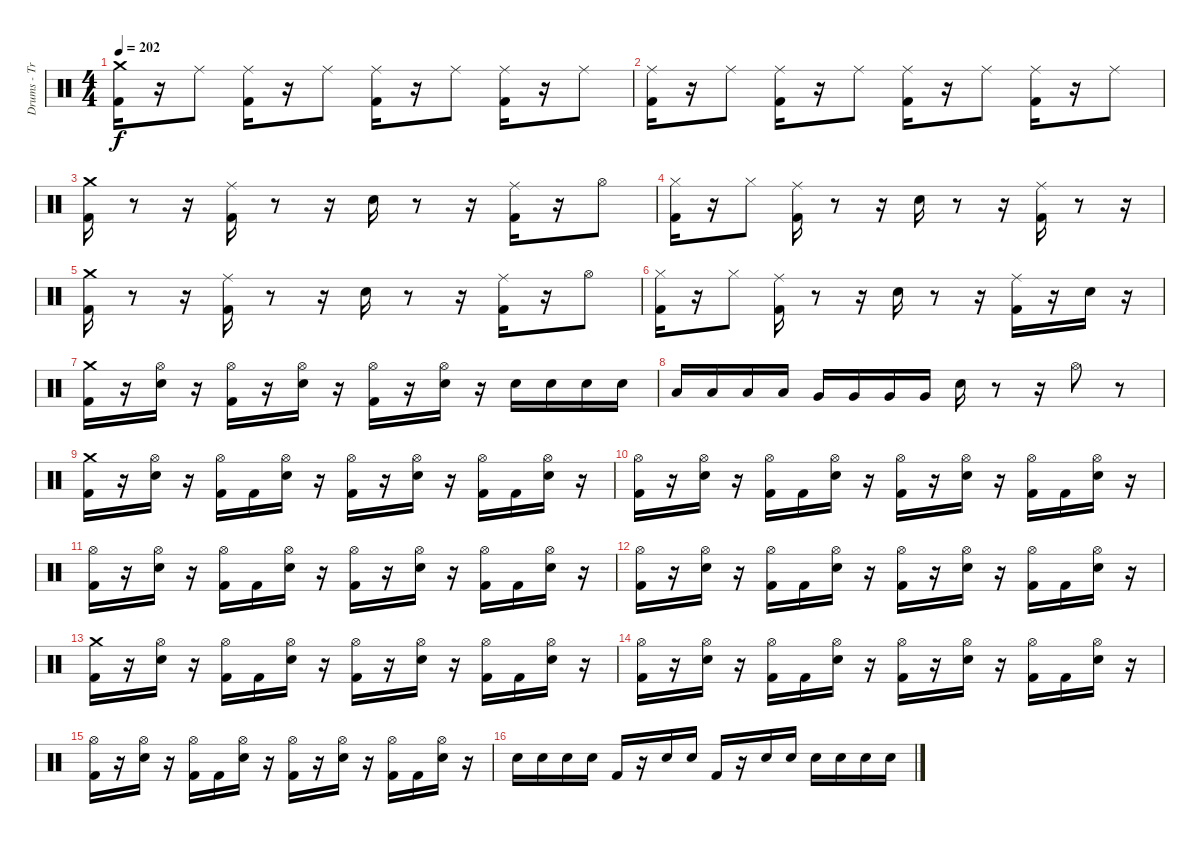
\track ("Drums - Travis Barker" "Drums - Tr") {instrument percussion}
\staff {score}
\articulation defaults
\ts (4 4)
\tempo 202
\clef neutral
\ks c
("Kick (hit) 2" "Crash medium (hit)").16{dy f} r.16 "Ride (middle)".8 ("Kick (hit) 2" "Ride (middle)").16 r.16 "Ride (middle)".8 ("Kick (hit) 2" "Ride (middle)").16 r.16 "Ride (middle)".8 ("Kick (hit) 2" "Ride (middle)").16 r.16 "Ride (middle)".8 |
("Kick (hit) 2" "Ride (middle)").16 r.16 "Ride (middle)".8 ("Kick (hit) 2" "Ride (middle)").16 r.16 "Ride (middle)".8 ("Kick (hit) 2" "Ride (middle)").16 r.16 "Ride (middle)".8 ("Kick (hit) 2" "Ride (middle)").16 r.16 "Ride (middle)".8 |
("Crash medium (hit)" "Kick (hit) 2").16 r.8 r.16 ("Ride (middle)" "Kick (hit) 2").16 r.8 r.16 "Electric Snare (hit)".16 r.8 r.16 ("Ride (middle)" "Kick (hit) 2").16 r.16 "Hi-Hat (open)".8 |
("Kick (hit) 2" "Hi-Hat (closed)").16 r.16 "Hi-Hat (closed)".8 ("Ride (middle)" "Kick (hit) 2").16 r.8 r.16 "Electric Snare (hit)".16 r.8 r.16 ("Ride (middle)" "Kick (hit) 2").16 r.8 r.16 |
("Crash medium (hit)" "Kick (hit) 2").16 r.8 r.16 ("Ride (middle)" "Kick (hit) 2").16 r.8 r.16 "Electric Snare (hit)".16 r.8 r.16 ("Ride (middle)" "Kick (hit) 2").16 r.16 "Hi-Hat (open)".8 |
("Kick (hit) 2" "Hi-Hat (closed)").16 r.16 "Hi-Hat (closed)".8 ("Ride (middle)" "Kick (hit) 2").16 r.8 r.16 "Electric Snare (hit)".16 r.8 r.16 ("Ride (middle)" "Kick (hit) 2").16 r.16 "Electric Snare (hit)".16 r.16 |
("Kick (hit) 2" "Crash medium (hit)").16 r.16 ("Electric Snare (hit)" "Hi-Hat (open)").16 r.16 ("Kick (hit) 2" "Hi-Hat (open)").16 r.16 ("Electric Snare (hit)" "Hi-Hat (open)").16 r.16 ("Kick (hit) 2" "Hi-Hat (open)").16 r.16 ("Electric Snare (hit)" "Hi-Hat (open)").16 r.16 "Electric Snare (hit)".16 "Electric Snare (hit)".16 "Electric Snare (hit)".16 "Electric Snare (hit)".16 |
"Low Tom (hit)".16 "Low Tom (hit)".16 "Low Tom (hit)".16 "Low Tom (hit)".16 "Very Low Tom (hit)".16 "Very Low Tom (hit)".16 "Very Low Tom (hit)".16 "Very Low Tom (hit)".16 "Electric Snare (hit)".16 r.8 r.16 "Hi-Hat (open)".8 r.8 |
("Kick (hit) 2" "Crash medium (hit)").16 r.16 ("Electric Snare (hit)" "Hi-Hat (open)").16 r.16 ("Kick (hit) 2" "Hi-Hat (open)").16 "Kick (hit) 2".16 ("Electric Snare (hit)" "Hi-Hat (open)").16 r.16 ("Kick (hit) 2" "Hi-Hat (open)").16 r.16 ("Electric Snare (hit)" "Hi-Hat (open)").16 r.16 ("Kick (hit) 2" "Hi-Hat (open)").16 "Kick (hit) 2".16 ("Electric Snare (hit)" "Hi-Hat (open)").16 r.16 |
("Kick (hit) 2" "Hi-Hat (open)").16 r.16 ("Electric Snare (hit)" "Hi-Hat (open)").16 r.16 ("Kick (hit) 2" "Hi-Hat (open)").16 "Kick (hit) 2".16 ("Electric Snare (hit)" "Hi-Hat (open)").16 r.16 ("Kick (hit) 2" "Hi-Hat (open)").16 r.16 ("Electric Snare (hit)" "Hi-Hat (open)").16 r.16 ("Kick (hit) 2" "Hi-Hat (open)").16 "Kick (hit) 2".16 ("Electric Snare (hit)" "Hi-Hat (open)").16 r.16 |
("Kick (hit) 2" "Hi-Hat (open)").16 r.16 ("Electric Snare (hit)" "Hi-Hat (open)").16 r.16 ("Kick (hit) 2" "Hi-Hat (open)").16 "Kick (hit) 2".16 ("Electric Snare (hit)" "Hi-Hat (open)").16 r.16 ("Kick (hit) 2" "Hi-Hat (open)").16 r.16 ("Electric Snare (hit)" "Hi-Hat (open)").16 r.16 ("Kick (hit) 2" "Hi-Hat (open)").16 "Kick (hit) 2".16 ("Electric Snare (hit)" "Hi-Hat (open)").16 r.16 |
("Kick (hit) 2" "Hi-Hat (open)").16 r.16 ("Electric Snare (hit)" "Hi-Hat (open)").16 r.16 ("Kick (hit) 2" "Hi-Hat (open)").16 "Kick (hit) 2".16 ("Electric Snare (hit)" "Hi-Hat (open)").16 r.16 ("Kick (hit) 2" "Hi-Hat (open)").16 r.16 ("Electric Snare (hit)" "Hi-Hat (open)").16 r.16 ("Kick (hit) 2" "Hi-Hat (open)").16 "Kick (hit) 2".16 ("Electric Snare (hit)" "Hi-Hat (open)").16 r.16 |
("Kick (hit) 2" "Crash medium (hit)").16 r.16 ("Electric Snare (hit)" "Hi-Hat (open)").16 r.16 ("Kick (hit) 2" "Hi-Hat (open)").16 "Kick (hit) 2".16 ("Electric Snare (hit)" "Hi-Hat (open)").16 r.16 ("Kick (hit) 2" "Hi-Hat (open)").16 r.16 ("Electric Snare (hit)" "Hi-Hat (open)").16 r.16 ("Kick (hit) 2" "Hi-Hat (open)").16 "Kick (hit) 2".16 ("Electric Snare (hit)" "Hi-Hat (open)").16 r.16 |
("Kick (hit) 2" "Hi-Hat (open)").16 r.16 ("Electric Snare (hit)" "Hi-Hat (open)").16 r.16 ("Kick (hit) 2" "Hi-Hat (open)").16 "Kick (hit) 2".16 ("Electric Snare (hit)" "Hi-Hat (open)").16 r.16 ("Kick (hit) 2" "Hi-Hat (open)").16 r.16 ("Electric Snare (hit)" "Hi-Hat (open)").16 r.16 ("Kick (hit) 2" "Hi-Hat (open)").16 "Kick (hit) 2".16 ("Electric Snare (hit)" "Hi-Hat (open)").16 r.16 |
("Kick (hit) 2" "Hi-Hat (open)").16 r.16 ("Electric Snare (hit)" "Hi-Hat (open)").16 r.16 ("Kick (hit) 2" "Hi-Hat (open)").16 "Kick (hit) 2".16 ("Electric Snare (hit)" "Hi-Hat (open)").16 r.16 ("Kick (hit) 2" "Hi-Hat (open)").16 r.16 ("Electric Snare (hit)" "Hi-Hat (open)").16 r.16 ("Kick (hit) 2" "Hi-Hat (open)").16 "Kick (hit) 2".16 ("Electric Snare (hit)" "Hi-Hat (open)").16 r.16 |
"Electric Snare (hit)".16 "Electric Snare (hit)".16 "Electric Snare (hit)".16 "Electric Snare (hit)".16 "Kick (hit) 2".16 r.16 "Electric Snare (hit)".16 "Electric Snare (hit)".16 "Kick (hit) 2".16 r.16 "Electric Snare (hit)".16 "Electric Snare (hit)".16 "Electric Snare (hit)".16 "Electric Snare (hit)".16 "Electric Snare (hit)".16 "Electric Snare (hit)".16
